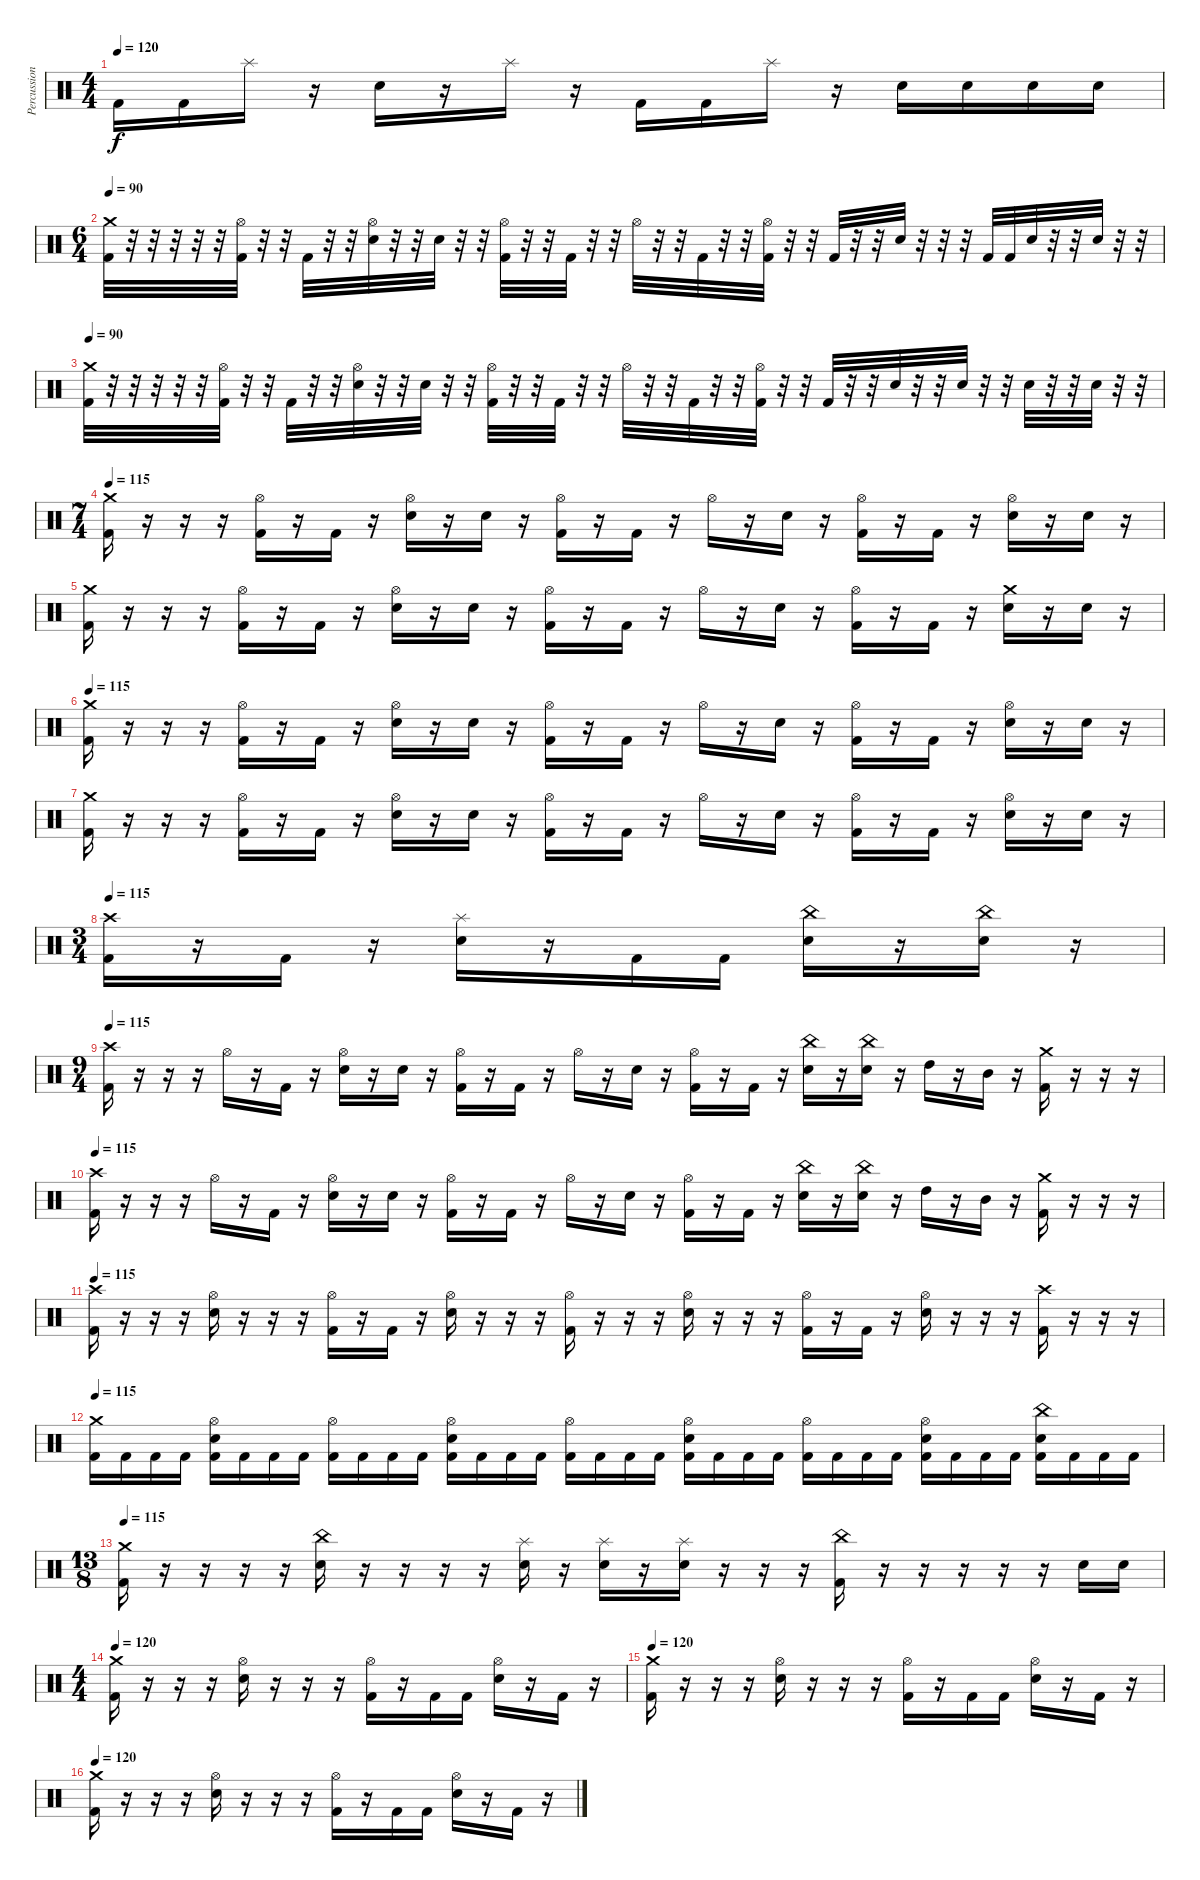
\track ("Percussion" "Percussion") {instrument percussion}
\staff {score}
\articulation defaults
\ts (4 4)
\tempo 120
\clef neutral
\ks c "Kick (hit) 2".16{dy f} "Kick (hit) 2".16 "Splash (hit)".16
r.16 "Electric Snare (hit)".16 r.16 "Splash (hit)".16 r.16 "Kick (hit) 2".16 "Kick (hit) 2".16 "Splash (hit)".16 r.16 "Electric Snare (hit)".16 "Electric Snare (hit)".16 "Electric Snare (hit)".16 "Electric Snare (hit)".16 |
\ts (6 4)
\tempo 90
("Crash medium (hit)" "Kick (hit) 2").32 r.32 r.32 r.32 r.32 r.32 ("Hi-Hat (open)" "Kick (hit) 2").32 r.32 r.32 "Kick (hit) 2".32 r.32 r.32 ("Hi-Hat (open)" "Electric Snare (hit)").32 r.32 r.32 "Electric Snare (hit)".32 r.32 r.32 ("Hi-Hat (open)" "Kick (hit) 2").32 r.32 r.32 "Kick (hit) 2".32 r.32 r.32 "Hi-Hat (open)".32 r.32 r.32 "Kick (hit) 2".32 r.32 r.32 ("Hi-Hat (open)" "Kick (hit) 2").32 r.32 r.32 "Kick (hit) 2".32 r.32 r.32 "Electric Snare (hit)".32 r.32 r.32 r.32 "Kick (hit) 2".32 "Kick (hit) 2".32 "Electric Snare (hit)".32 r.32 r.32 "Electric Snare (hit)".32 r.32 r.32 |
\tempo 90
("Crash medium (hit)" "Kick (hit) 2").32 r.32 r.32 r.32 r.32 r.32 ("Hi-Hat (open)" "Kick (hit) 2").32 r.32 r.32 "Kick (hit) 2".32 r.32 r.32 ("Hi-Hat (open)" "Electric Snare (hit)").32 r.32 r.32 "Electric Snare (hit)".32 r.32 r.32 ("Hi-Hat (open)" "Kick (hit) 2").32 r.32 r.32 "Kick (hit) 2".32 r.32 r.32 "Hi-Hat (open)".32 r.32 r.32 "Kick (hit) 2".32 r.32 r.32 ("Hi-Hat (open)" "Kick (hit) 2").32 r.32 r.32 "Kick (hit) 2".32 r.32 r.32 "Electric Snare (hit)".32 r.32 r.32 "Electric Snare (hit)".32 r.32 r.32 "Electric Snare (hit)".32 r.32 r.32 "Electric Snare (hit)".32 r.32 r.32 |
\ts (7 4)
\tempo 115
("Crash medium (hit)" "Kick (hit) 2").16 r.16 r.16 r.16 ("Hi-Hat (open)" "Kick (hit) 2").16 r.16 "Kick (hit) 2".16 r.16 ("Hi-Hat (open)" "Electric Snare (hit)").16 r.16 "Electric Snare (hit)".16 r.16 ("Hi-Hat (open)" "Kick (hit) 2").16 r.16 "Kick (hit) 2".16 r.16 "Hi-Hat (open)".16 r.16 "Electric Snare (hit)".16 r.16 ("Hi-Hat (open)" "Kick (hit) 2").16 r.16 "Kick (hit) 2".16 r.16 ("Hi-Hat (open)" "Electric Snare (hit)").16 r.16 "Electric Snare (hit)".16 r.16 |
("Crash medium (hit)" "Kick (hit) 2").16 r.16 r.16 r.16 ("Hi-Hat (open)" "Kick (hit) 2").16 r.16 "Kick (hit) 2".16 r.16 ("Hi-Hat (open)" "Electric Snare (hit)").16 r.16 "Electric Snare (hit)".16 r.16 ("Hi-Hat (open)" "Kick (hit) 2").16 r.16 "Kick (hit) 2".16 r.16 "Hi-Hat (open)".16 r.16 "Electric Snare (hit)".16 r.16 ("Hi-Hat (open)" "Kick (hit) 2").16 r.16 "Kick (hit) 2".16 r.16 ("Crash medium (hit)" "Electric Snare (hit)").16 r.16 "Electric Snare (hit)".16 r.16 |
\tempo 115
("Crash medium (hit)" "Kick (hit) 2").16 r.16 r.16 r.16 ("Hi-Hat (open)" "Kick (hit) 2").16 r.16 "Kick (hit) 2".16 r.16 ("Hi-Hat (open)" "Electric Snare (hit)").16 r.16 "Electric Snare (hit)".16 r.16 ("Hi-Hat (open)" "Kick (hit) 2").16 r.16 "Kick (hit) 2".16 r.16 "Hi-Hat (open)".16 r.16 "Electric Snare (hit)".16 r.16 ("Hi-Hat (open)" "Kick (hit) 2").16 r.16 "Kick (hit) 2".16 r.16 ("Hi-Hat (open)" "Electric Snare (hit)").16 r.16 "Electric Snare (hit)".16 r.16 |
("Crash medium (hit)" "Kick (hit) 2").16 r.16 r.16 r.16 ("Hi-Hat (open)" "Kick (hit) 2").16 r.16 "Kick (hit) 2".16 r.16 ("Hi-Hat (open)" "Electric Snare (hit)").16 r.16 "Electric Snare (hit)".16 r.16 ("Hi-Hat (open)" "Kick (hit) 2").16 r.16 "Kick (hit) 2".16 r.16 "Hi-Hat (open)".16 r.16 "Electric Snare (hit)".16 r.16 ("Hi-Hat (open)" "Kick (hit) 2").16 r.16 "Kick (hit) 2".16 r.16 ("Hi-Hat (open)" "Electric Snare (hit)").16 r.16 "Electric Snare (hit)".16 r.16 |
\ts (3 4)
\tempo 115
("Crash high (hit)" "Kick (hit) 2").16 r.16 "Kick (hit) 2".16 r.16 ("Splash (hit)" "Electric Snare (hit)").16 r.16 "Kick (hit) 2".16 "Kick (hit) 2".16 ("China (hit)" "Electric Snare (hit)").16 r.16 ("China (hit)" "Electric Snare (hit)").16 r.16 |
\ts (9 4)
\tempo 115
("Crash high (hit)" "Kick (hit) 2").16 r.16 r.16 r.16 "Hi-Hat (open)".16 r.16 "Kick (hit) 2".16 r.16 ("Hi-Hat (open)" "Electric Snare (hit)").16 r.16 "Electric Snare (hit)".16 r.16 ("Hi-Hat (open)" "Kick (hit) 2").16 r.16 "Kick (hit) 2".16 r.16 "Hi-Hat (open)".16 r.16 "Electric Snare (hit)".16 r.16 ("Hi-Hat (open)" "Kick (hit) 2").16 r.16 "Kick (hit) 2".16 r.16 ("China (hit)" "Electric Snare (hit)").16 r.16 ("China (hit)" "Electric Snare (hit)").16 r.16 "High Tom (hit)".16 r.16 "Mid Tom (hit)".16 r.16 ("Crash medium (hit)" "Kick (hit) 2").16 r.16 r.16 r.16 |
\tempo 115
("Crash high (hit)" "Kick (hit) 2").16 r.16 r.16 r.16 "Hi-Hat (open)".16 r.16 "Kick (hit) 2".16 r.16 ("Hi-Hat (open)" "Electric Snare (hit)").16 r.16 "Electric Snare (hit)".16 r.16 ("Hi-Hat (open)" "Kick (hit) 2").16 r.16 "Kick (hit) 2".16 r.16 "Hi-Hat (open)".16 r.16 "Electric Snare (hit)".16 r.16 ("Hi-Hat (open)" "Kick (hit) 2").16 r.16 "Kick (hit) 2".16 r.16 ("China (hit)" "Electric Snare (hit)").16 r.16 ("China (hit)" "Electric Snare (hit)").16 r.16 "High Tom (hit)".16 r.16 "Mid Tom (hit)".16 r.16 ("Crash medium (hit)" "Kick (hit) 2").16 r.16 r.16 r.16 |
\tempo 115
("Crash high (hit)" "Kick (hit) 2").16 r.16 r.16 r.16 ("Hi-Hat (open)" "Electric Snare (hit)").16 r.16 r.16 r.16 ("Hi-Hat (open)" "Kick (hit) 2").16 r.16 "Kick (hit) 2".16 r.16 ("Hi-Hat (open)" "Electric Snare (hit)").16 r.16 r.16 r.16 ("Hi-Hat (open)" "Kick (hit) 2").16 r.16 r.16 r.16 ("Hi-Hat (open)" "Electric Snare (hit)").16 r.16 r.16 r.16 ("Hi-Hat (open)" "Kick (hit) 2").16 r.16 "Kick (hit) 2".16 r.16 ("Hi-Hat (open)" "Electric Snare (hit)").16 r.16 r.16 r.16 ("Crash high (hit)" "Kick (hit) 2").16 r.16 r.16 r.16 |
\tempo 115
("Crash medium (hit)" "Kick (hit) 2").16 "Kick (hit) 2".16 "Kick (hit) 2".16 "Kick (hit) 2".16 ("Hi-Hat (open)" "Electric Snare (hit)" "Kick (hit) 2").16 "Kick (hit) 2".16 "Kick (hit) 2".16 "Kick (hit) 2".16 ("Hi-Hat (open)" "Kick (hit) 2").16 "Kick (hit) 2".16 "Kick (hit) 2".16 "Kick (hit) 2".16 ("Hi-Hat (open)" "Electric Snare (hit)" "Kick (hit) 2").16 "Kick (hit) 2".16 "Kick (hit) 2".16 "Kick (hit) 2".16 ("Hi-Hat (open)" "Kick (hit) 2").16 "Kick (hit) 2".16 "Kick (hit) 2".16 "Kick (hit) 2".16 ("Hi-Hat (open)" "Electric Snare (hit)" "Kick (hit) 2").16 "Kick (hit) 2".16 "Kick (hit) 2".16 "Kick (hit) 2".16 ("Hi-Hat (open)" "Kick (hit) 2").16 "Kick (hit) 2".16 "Kick (hit) 2".16 "Kick (hit) 2".16 ("Hi-Hat (open)" "Electric Snare (hit)" "Kick (hit) 2").16 "Kick (hit) 2".16 "Kick (hit) 2".16 "Kick (hit) 2".16 ("China (hit)" "Electric Snare (hit)" "Kick (hit) 2").16 "Kick (hit) 2".16 "Kick (hit) 2".16 "Kick (hit) 2".16 |
\ts (13 8)
\tempo 115
("Crash medium (hit)" "Kick (hit) 2").16 r.16 r.16 r.16 r.16 ("China (hit)" "Electric Snare (hit)").16 r.16 r.16 r.16 r.16 ("Splash (hit)" "Electric Snare (hit)").16 r.16 ("Splash (hit)" "Electric Snare (hit)").16 r.16 ("Splash (hit)" "Electric Snare (hit)").16 r.16 r.16 r.16 ("China (hit)" "Kick (hit) 2").16 r.16 r.16 r.16 r.16 r.16 "Electric Snare (hit)".16 "Electric Snare (hit)".16 |
\ts (4 4)
\tempo 120
("Crash medium (hit)" "Kick (hit) 2").16 r.16 r.16 r.16 ("Hi-Hat (open)" "Electric Snare (hit)").16 r.16 r.16 r.16 ("Hi-Hat (open)" "Kick (hit) 2").16 r.16 "Kick (hit) 2".16 "Kick (hit) 2".16 ("Hi-Hat (open)" "Electric Snare (hit)").16 r.16 "Kick (hit) 2".16 r.16 |
\tempo 120
("Crash medium (hit)" "Kick (hit) 2").16 r.16 r.16 r.16 ("Hi-Hat (open)" "Electric Snare (hit)").16 r.16 r.16 r.16 ("Hi-Hat (open)" "Kick (hit) 2").16 r.16 "Kick (hit) 2".16 "Kick (hit) 2".16 ("Hi-Hat (open)" "Electric Snare (hit)").16 r.16 "Kick (hit) 2".16 r.16 |
\tempo 120
("Crash medium (hit)" "Kick (hit) 2").16 r.16 r.16 r.16 ("Hi-Hat (open)" "Electric Snare (hit)").16 r.16 r.16 r.16 ("Hi-Hat (open)" "Kick (hit) 2").16 r.16 "Kick (hit) 2".16 "Kick (hit) 2".16 ("Hi-Hat (open)" "Electric Snare (hit)").16 r.16 "Kick (hit) 2".16 r.16
